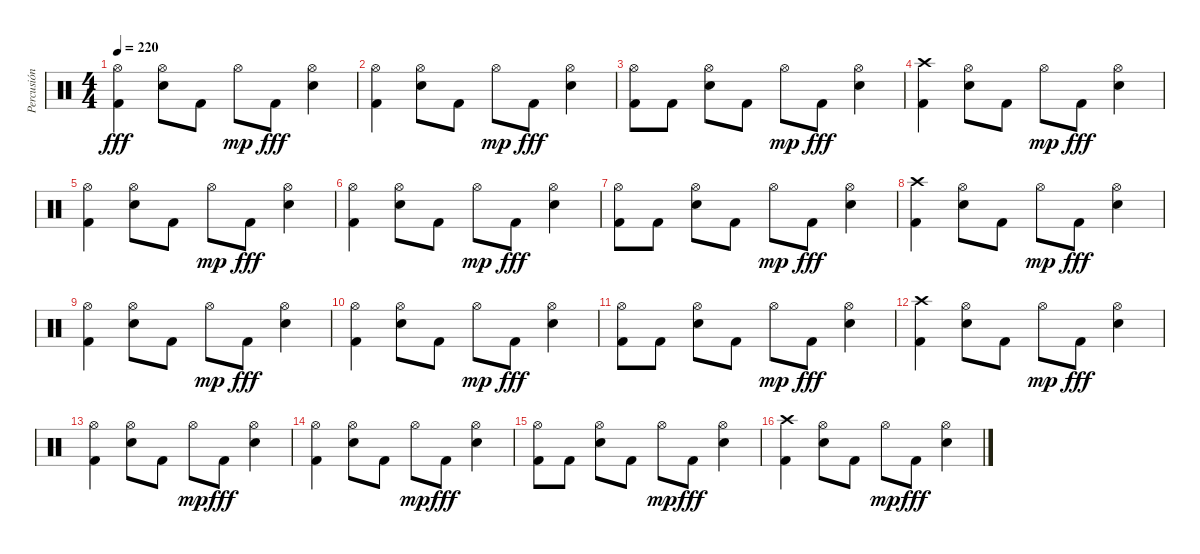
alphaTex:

\track ("Percusión" "Percusión") {instrument percussion}
\staff {score}
\articulation defaults
\ts (4 4)
\tempo 220
\clef neutral
\ks c
("Hi-Hat (open)" "Kick (hit) 2").4{dy fff} ("Hi-Hat (open)" "Snare (hit) 2").8 "Kick (hit) 2".8 "Hi-Hat (open)".8{dy mp} "Kick (hit) 2".8{dy fff} ("Hi-Hat (open)" "Snare (hit) 2").4 |
("Hi-Hat (open)" "Kick (hit) 2").4 ("Hi-Hat (open)" "Snare (hit) 2").8 "Kick (hit) 2".8 "Hi-Hat (open)".8{dy mp} "Kick (hit) 2".8{dy fff} ("Hi-Hat (open)" "Snare (hit) 2").4 |
("Hi-Hat (open)" "Kick (hit) 2").8 "Kick (hit) 2".8 ("Hi-Hat (open)" "Snare (hit) 2").8 "Kick (hit) 2".8 "Hi-Hat (open)".8{dy mp} "Kick (hit) 2".8{dy fff} ("Hi-Hat (open)" "Snare (hit) 2").4 |
("Crash high (hit)" "Kick (hit) 2").4 ("Hi-Hat (open)" "Snare (hit) 2").8 "Kick (hit) 2".8 "Hi-Hat (open)".8{dy mp} "Kick (hit) 2".8{dy fff} ("Hi-Hat (open)" "Snare (hit) 2").4 |
("Hi-Hat (open)" "Kick (hit) 2").4 ("Hi-Hat (open)" "Snare (hit) 2").8 "Kick (hit) 2".8 "Hi-Hat (open)".8{dy mp} "Kick (hit) 2".8{dy fff} ("Hi-Hat (open)" "Snare (hit) 2").4 |
("Hi-Hat (open)" "Kick (hit) 2").4 ("Hi-Hat (open)" "Snare (hit) 2").8 "Kick (hit) 2".8 "Hi-Hat (open)".8{dy mp} "Kick (hit) 2".8{dy fff} ("Hi-Hat (open)" "Snare (hit) 2").4 |
("Hi-Hat (open)" "Kick (hit) 2").8 "Kick (hit) 2".8 ("Hi-Hat (open)" "Snare (hit) 2").8 "Kick (hit) 2".8 "Hi-Hat (open)".8{dy mp} "Kick (hit) 2".8{dy fff} ("Hi-Hat (open)" "Snare (hit) 2").4 |
("Crash high (hit)" "Kick (hit) 2").4 ("Hi-Hat (open)" "Snare (hit) 2").8 "Kick (hit) 2".8 "Hi-Hat (open)".8{dy mp} "Kick (hit) 2".8{dy fff} ("Hi-Hat (open)" "Snare (hit) 2").4 |
("Hi-Hat (open)" "Kick (hit) 2").4 ("Hi-Hat (open)" "Snare (hit) 2").8 "Kick (hit) 2".8 "Hi-Hat (open)".8{dy mp} "Kick (hit) 2".8{dy fff} ("Hi-Hat (open)" "Snare (hit) 2").4 |
("Hi-Hat (open)" "Kick (hit) 2").4 ("Hi-Hat (open)" "Snare (hit) 2").8 "Kick (hit) 2".8 "Hi-Hat (open)".8{dy mp} "Kick (hit) 2".8{dy fff} ("Hi-Hat (open)" "Snare (hit) 2").4 |
("Hi-Hat (open)" "Kick (hit) 2").8 "Kick (hit) 2".8 ("Hi-Hat (open)" "Snare (hit) 2").8 "Kick (hit) 2".8 "Hi-Hat (open)".8{dy mp} "Kick (hit) 2".8{dy fff} ("Hi-Hat (open)" "Snare (hit) 2").4 |
("Crash high (hit)" "Kick (hit) 2").4 ("Hi-Hat (open)" "Snare (hit) 2").8 "Kick (hit) 2".8 "Hi-Hat (open)".8{dy mp} "Kick (hit) 2".8{dy fff} ("Hi-Hat (open)" "Snare (hit) 2").4 |
("Hi-Hat (open)" "Kick (hit) 2").4 ("Hi-Hat (open)" "Snare (hit) 2").8 "Kick (hit) 2".8 "Hi-Hat (open)".8{dy mp} "Kick (hit) 2".8{dy fff} ("Hi-Hat (open)" "Snare (hit) 2").4 |
("Hi-Hat (open)" "Kick (hit) 2").4 ("Hi-Hat (open)" "Snare (hit) 2").8 "Kick (hit) 2".8 "Hi-Hat (open)".8{dy mp} "Kick (hit) 2".8{dy fff} ("Hi-Hat (open)" "Snare (hit) 2").4 |
("Hi-Hat (open)" "Kick (hit) 2").8 "Kick (hit) 2".8 ("Hi-Hat (open)" "Snare (hit) 2").8 "Kick (hit) 2".8 "Hi-Hat (open)".8{dy mp} "Kick (hit) 2".8{dy fff} ("Hi-Hat (open)" "Snare (hit) 2").4 |
("Crash high (hit)" "Kick (hit) 2").4 ("Hi-Hat (open)" "Snare (hit) 2").8 "Kick (hit) 2".8 "Hi-Hat (open)".8{dy mp} "Kick (hit) 2".8{dy fff} ("Hi-Hat (open)" "Snare (hit) 2").4
